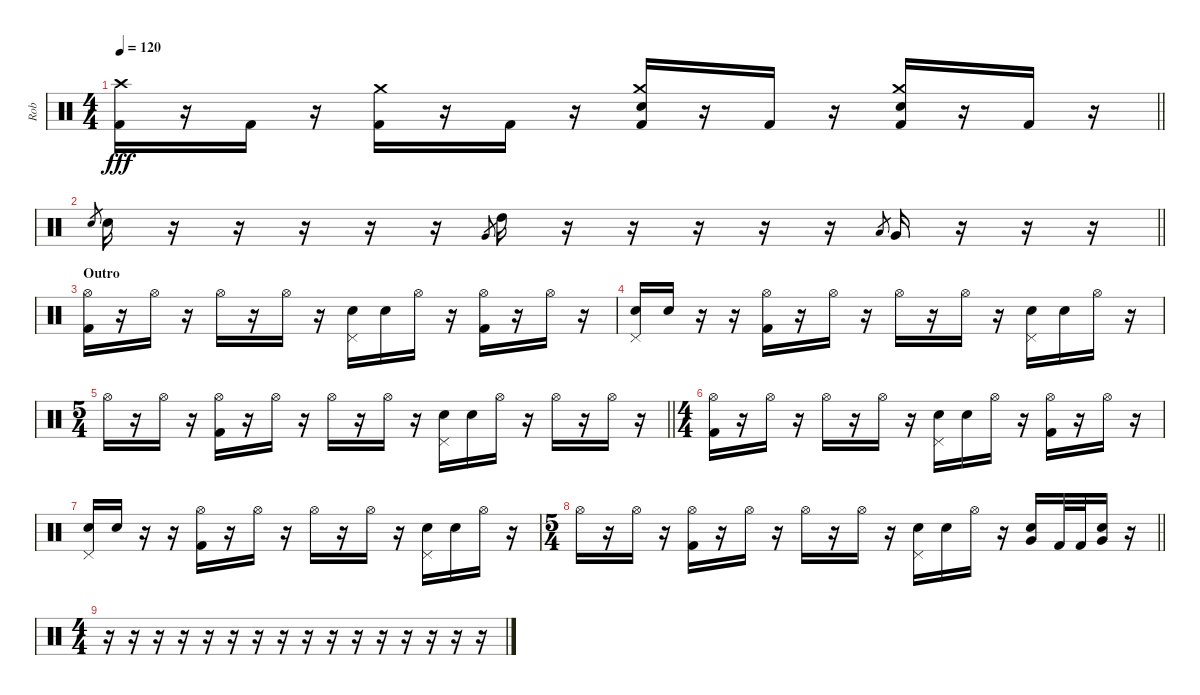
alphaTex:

\track ("Rob" "Rob") {instrument percussion}
\staff {score}
\articulation defaults
\ts (4 4)
\tempo 120
\clef neutral
\barLineRight lightlight
\ks c
("Crash high (hit)" "Kick (hit) 2").16{dy fff} r.16 "Kick (hit) 2".16 r.16 ("Crash medium (hit)" "Kick (hit) 2").16 r.16 "Kick (hit) 2".16 r.16 ("Crash medium (hit)" "Electric Snare (hit)" "Kick (hit) 2").16 r.16 "Kick (hit) 2".16 r.16 ("Crash medium (hit)" "Electric Snare (hit)" "Kick (hit) 2").16 r.16 "Kick (hit) 2".16 r.16 |
\barLineRight lightlight "Electric Snare (hit)".8{gr} "Electric Snare (hit)".16
r.16 r.16 r.16 r.16 r.16 "Very Low Tom (hit)".8{gr} "High Tom (hit)".16 r.16 r.16 r.16 r.16 r.16 "Low Floor Tom (hit)".8{gr} "Very Low Tom (hit)".16 r.16 r.16 r.16 |
\section ("" "Outro")
("Hi-Hat (open)" "Kick (hit) 2").16 r.16 "Hi-Hat (open)".16 r.16 "Hi-Hat (open)".16 r.16 "Hi-Hat (open)".16 r.16 ("Pedal Hi-Hat (hit)" "Electric Snare (hit)").16 "Electric Snare (hit)".16 "Hi-Hat (open)".16 r.16 ("Hi-Hat (open)" "Kick (hit) 2").16 r.16 "Hi-Hat (open)".16 r.16 |
("Pedal Hi-Hat (hit)" "Electric Snare (hit)").16 "Electric Snare (hit)".16 r.16 r.16 ("Hi-Hat (open)" "Kick (hit) 2").16 r.16 "Hi-Hat (open)".16 r.16 "Hi-Hat (open)".16 r.16 "Hi-Hat (open)".16 r.16 ("Pedal Hi-Hat (hit)" "Electric Snare (hit)").16 "Electric Snare (hit)".16 "Hi-Hat (open)".16 r.16 |
\ts (5 4)
\barLineRight lightlight "Hi-Hat (open)".16
r.16 "Hi-Hat (open)".16 r.16 ("Hi-Hat (open)" "Kick (hit) 2").16 r.16 "Hi-Hat (open)".16 r.16 "Hi-Hat (open)".16 r.16 "Hi-Hat (open)".16 r.16 ("Pedal Hi-Hat (hit)" "Electric Snare (hit)").16 "Electric Snare (hit)".16 "Hi-Hat (open)".16 r.16 "Hi-Hat (open)".16 r.16 "Hi-Hat (open)".16 r.16 |
\ts (4 4)
("Hi-Hat (open)" "Kick (hit) 2").16 r.16 "Hi-Hat (open)".16 r.16 "Hi-Hat (open)".16 r.16 "Hi-Hat (open)".16 r.16 ("Pedal Hi-Hat (hit)" "Electric Snare (hit)").16 "Electric Snare (hit)".16 "Hi-Hat (open)".16 r.16 ("Hi-Hat (open)" "Kick (hit) 2").16 r.16 "Hi-Hat (open)".16 r.16 |
("Pedal Hi-Hat (hit)" "Electric Snare (hit)").16 "Electric Snare (hit)".16 r.16 r.16 ("Hi-Hat (open)" "Kick (hit) 2").16 r.16 "Hi-Hat (open)".16 r.16 "Hi-Hat (open)".16 r.16 "Hi-Hat (open)".16 r.16 ("Pedal Hi-Hat (hit)" "Electric Snare (hit)").16 "Electric Snare (hit)".16 "Hi-Hat (open)".16 r.16 |
\ts (5 4)
\barLineRight lightlight "Hi-Hat (open)".16
r.16 "Hi-Hat (open)".16 r.16 ("Hi-Hat (open)" "Kick (hit) 2").16 r.16 "Hi-Hat (open)".16 r.16 "Hi-Hat (open)".16 r.16 "Hi-Hat (open)".16 r.16 ("Pedal Hi-Hat (hit)" "Electric Snare (hit)").16 "Electric Snare (hit)".16 "Hi-Hat (open)".16 r.16 ("Electric Snare (hit)" "Very Low Tom (hit)").16 "Kick (hit) 2".32 "Kick (hit) 2".32 ("Electric Snare (hit)" "Very Low Tom (hit)").16 r.16 |
\ts (4 4)
r.16 r.16 r.16 r.16 r.16 r.16 r.16 r.16 r.16 r.16 r.16 r.16 r.16 r.16 r.16 r.16
